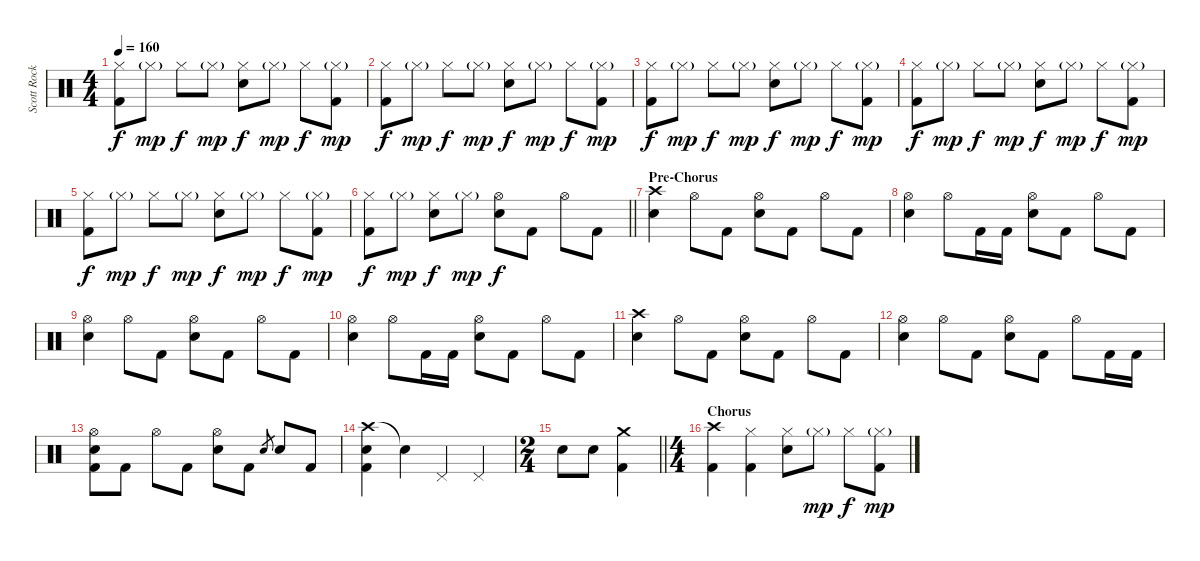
\track ("Scott Rockenfield" "Scott Rock") {instrument percussion}
\staff {score}
\articulation defaults
\ts (4 4)
\tempo 160
\clef neutral
\ks c
("Hi-Hat (closed)" "Kick (hit) 2").8{dy f} "Hi-Hat (closed)"{g}.8{dy mp} "Hi-Hat (closed)".8{dy f} "Hi-Hat (closed)"{g}.8{dy mp} ("Hi-Hat (closed)" "Electric Snare (hit)").8{dy f} "Hi-Hat (closed)"{g}.8{dy mp} "Hi-Hat (closed)".8{dy f} ("Hi-Hat (closed)"{g} "Kick (hit) 2").8{dy mp} |
("Hi-Hat (closed)" "Kick (hit) 2").8{dy f} "Hi-Hat (closed)"{g}.8{dy mp} "Hi-Hat (closed)".8{dy f} "Hi-Hat (closed)"{g}.8{dy mp} ("Hi-Hat (closed)" "Electric Snare (hit)").8{dy f} "Hi-Hat (closed)"{g}.8{dy mp} "Hi-Hat (closed)".8{dy f} ("Hi-Hat (closed)"{g} "Kick (hit) 2").8{dy mp} |
("Hi-Hat (closed)" "Kick (hit) 2").8{dy f} "Hi-Hat (closed)"{g}.8{dy mp} "Hi-Hat (closed)".8{dy f} "Hi-Hat (closed)"{g}.8{dy mp} ("Hi-Hat (closed)" "Electric Snare (hit)").8{dy f} "Hi-Hat (closed)"{g}.8{dy mp} "Hi-Hat (closed)".8{dy f} ("Hi-Hat (closed)"{g} "Kick (hit) 2").8{dy mp} |
("Hi-Hat (closed)" "Kick (hit) 2").8{dy f} "Hi-Hat (closed)"{g}.8{dy mp} "Hi-Hat (closed)".8{dy f} "Hi-Hat (closed)"{g}.8{dy mp} ("Hi-Hat (closed)" "Electric Snare (hit)").8{dy f} "Hi-Hat (closed)"{g}.8{dy mp} "Hi-Hat (closed)".8{dy f} ("Hi-Hat (closed)"{g} "Kick (hit) 2").8{dy mp} |
("Hi-Hat (closed)" "Kick (hit) 2").8{dy f} "Hi-Hat (closed)"{g}.8{dy mp} "Hi-Hat (closed)".8{dy f} "Hi-Hat (closed)"{g}.8{dy mp} ("Hi-Hat (closed)" "Electric Snare (hit)").8{dy f} "Hi-Hat (closed)"{g}.8{dy mp} "Hi-Hat (closed)".8{dy f} ("Hi-Hat (closed)"{g} "Kick (hit) 2").8{dy mp} |
\barLineRight lightlight
("Hi-Hat (closed)" "Kick (hit) 2").8{dy f} "Hi-Hat (closed)"{g}.8{dy mp} ("Hi-Hat (closed)" "Electric Snare (hit)").8{dy f} "Hi-Hat (closed)"{g}.8{dy mp} ("Hi-Hat (open)" "Electric Snare (hit)").8{dy f} "Kick (hit) 2".8 "Hi-Hat (open)".8 "Kick (hit) 2".8 |
\section ("" "Pre-Chorus")
("Crash high (hit)" "Electric Snare (hit)").4 "Hi-Hat (open)".8 "Kick (hit) 2".8 ("Hi-Hat (open)" "Electric Snare (hit)").8 "Kick (hit) 2".8 "Hi-Hat (open)".8 "Kick (hit) 2".8 |
("Hi-Hat (open)" "Electric Snare (hit)").4 "Hi-Hat (open)".8 "Kick (hit) 2".16 "Kick (hit) 2".16 ("Hi-Hat (open)" "Electric Snare (hit)").8 "Kick (hit) 2".8 "Hi-Hat (open)".8 "Kick (hit) 2".8 |
("Hi-Hat (open)" "Electric Snare (hit)").4 "Hi-Hat (open)".8 "Kick (hit) 2".8 ("Hi-Hat (open)" "Electric Snare (hit)").8 "Kick (hit) 2".8 "Hi-Hat (open)".8 "Kick (hit) 2".8 |
("Hi-Hat (open)" "Electric Snare (hit)").4 "Hi-Hat (open)".8 "Kick (hit) 2".16 "Kick (hit) 2".16 ("Hi-Hat (open)" "Electric Snare (hit)").8 "Kick (hit) 2".8 "Hi-Hat (open)".8 "Kick (hit) 2".8 |
("Crash high (hit)" "Electric Snare (hit)").4 "Hi-Hat (open)".8 "Kick (hit) 2".8 ("Hi-Hat (open)" "Electric Snare (hit)").8 "Kick (hit) 2".8 "Hi-Hat (open)".8 "Kick (hit) 2".8 |
("Hi-Hat (open)" "Electric Snare (hit)").4 "Hi-Hat (open)".8 "Kick (hit) 2".8 ("Hi-Hat (open)" "Electric Snare (hit)").8 "Kick (hit) 2".8 "Hi-Hat (open)".8 "Kick (hit) 2".16 "Kick (hit) 2".16 |
("Hi-Hat (open)" "Electric Snare (hit)" "Kick (hit) 2").8 "Kick (hit) 2".8 "Hi-Hat (open)".8 "Kick (hit) 2".8 ("Hi-Hat (open)" "Electric Snare (hit)").8 "Kick (hit) 2".8 "Electric Snare (hit)".8{gr} "Electric Snare (hit)".8 "Kick (hit) 2".8 |
("Crash high (hit)" "Electric Snare (hit)" "Kick (hit) 2").4 "Snare (hit)"{t}.4 "Pedal Hi-Hat (hit)".4 "Pedal Hi-Hat (hit)".4 |
\ts (2 4)
\barLineRight lightlight "Electric Snare (hit)".8 "Electric Snare (hit)".8
("Crash medium (hit)" "Kick (hit) 2").4 |
\ts (4 4)
\section ("" "Chorus")
("Crash high (hit)" "Kick (hit) 2").4 ("Hi-Hat (closed)" "Kick (hit) 2").4 ("Hi-Hat (closed)" "Electric Snare (hit)").8 "Hi-Hat (closed)"{g}.8{dy mp} "Hi-Hat (closed)".8{dy f} ("Hi-Hat (closed)"{g} "Kick (hit) 2").8{dy mp}
